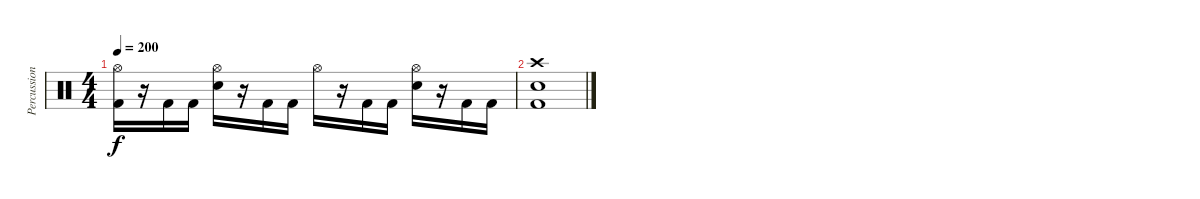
\track ("Percussion" "Percussion") {instrument percussion}
\staff {score}
\articulation defaults
\ts (4 4)
\tempo 200
\clef neutral
\ks c
("Hi-Hat (open)" "Kick (hit) 2").16{dy f} r.16 "Kick (hit) 2".16 "Kick (hit) 2".16 ("Hi-Hat (open)" "Electric Snare (hit)").16 r.16 "Kick (hit) 2".16 "Kick (hit) 2".16 "Hi-Hat (open)".16 r.16 "Kick (hit) 2".16 "Kick (hit) 2".16 ("Hi-Hat (open)" "Electric Snare (hit)").16 r.16 "Kick (hit) 2".16 "Kick (hit) 2".16 |
("Crash high (hit)" "Electric Snare (hit)" "Kick (hit) 2").1
